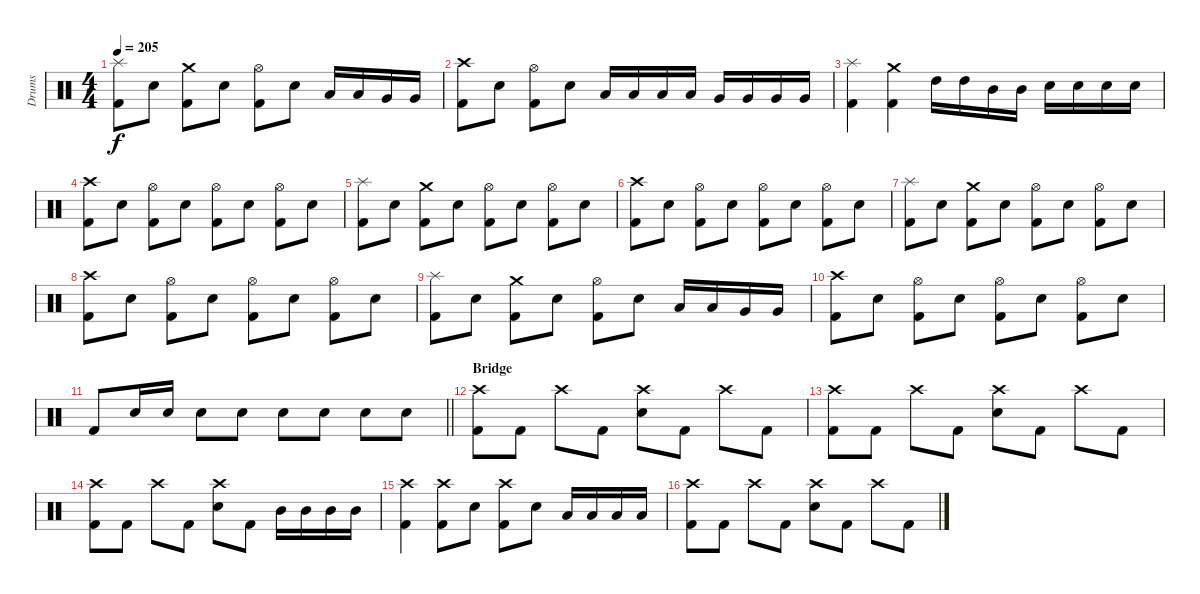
\track ("Drums" "Drums") {instrument percussion}
\staff {score}
\articulation defaults
\ts (4 4)
\tempo 205
\clef neutral
\ks c
("Splash (hit)" "Kick (hit) 2").8{dy f} "Electric Snare (hit)".8 ("Crash medium (hit)" "Kick (hit) 2").8 "Electric Snare (hit)".8 ("Hi-Hat (open)" "Kick (hit) 2").8 "Electric Snare (hit)".8 "Low Tom (hit)".16 "Low Tom (hit)".16 "Very Low Tom (hit)".16 "Very Low Tom (hit)".16 |
("Crash high (hit)" "Kick (hit) 2").8 "Electric Snare (hit)".8 ("Hi-Hat (open)" "Kick (hit) 2").8 "Electric Snare (hit)".8 "Low Tom (hit)".16 "Low Tom (hit)".16 "Low Tom (hit)".16 "Low Tom (hit)".16 "Very Low Tom (hit)".16 "Very Low Tom (hit)".16 "Very Low Tom (hit)".16 "Very Low Tom (hit)".16 |
("Splash (hit)" "Kick (hit) 2").4 ("Crash medium (hit)" "Kick (hit) 2").4 "High Tom (hit)".16 "High Tom (hit)".16 "Mid Tom (hit)".16 "Mid Tom (hit)".16 "Electric Snare (hit)".16 "Electric Snare (hit)".16 "Electric Snare (hit)".16 "Electric Snare (hit)".16 |
("Crash high (hit)" "Kick (hit) 2").8 "Electric Snare (hit)".8 ("Hi-Hat (open)" "Kick (hit) 2").8 "Electric Snare (hit)".8 ("Hi-Hat (open)" "Kick (hit) 2").8 "Electric Snare (hit)".8 ("Hi-Hat (open)" "Kick (hit) 2").8 "Electric Snare (hit)".8 |
("Splash (hit)" "Kick (hit) 2").8 "Electric Snare (hit)".8 ("Crash medium (hit)" "Kick (hit) 2").8 "Electric Snare (hit)".8 ("Hi-Hat (open)" "Kick (hit) 2").8 "Electric Snare (hit)".8 ("Hi-Hat (open)" "Kick (hit) 2").8 "Electric Snare (hit)".8 |
("Crash high (hit)" "Kick (hit) 2").8 "Electric Snare (hit)".8 ("Hi-Hat (open)" "Kick (hit) 2").8 "Electric Snare (hit)".8 ("Hi-Hat (open)" "Kick (hit) 2").8 "Electric Snare (hit)".8 ("Hi-Hat (open)" "Kick (hit) 2").8 "Electric Snare (hit)".8 |
("Splash (hit)" "Kick (hit) 2").8 "Electric Snare (hit)".8 ("Crash medium (hit)" "Kick (hit) 2").8 "Electric Snare (hit)".8 ("Hi-Hat (open)" "Kick (hit) 2").8 "Electric Snare (hit)".8 ("Hi-Hat (open)" "Kick (hit) 2").8 "Electric Snare (hit)".8 |
("Crash high (hit)" "Kick (hit) 2").8 "Electric Snare (hit)".8 ("Hi-Hat (open)" "Kick (hit) 2").8 "Electric Snare (hit)".8 ("Hi-Hat (open)" "Kick (hit) 2").8 "Electric Snare (hit)".8 ("Hi-Hat (open)" "Kick (hit) 2").8 "Electric Snare (hit)".8 |
("Splash (hit)" "Kick (hit) 2").8 "Electric Snare (hit)".8 ("Crash medium (hit)" "Kick (hit) 2").8 "Electric Snare (hit)".8 ("Hi-Hat (open)" "Kick (hit) 2").8 "Electric Snare (hit)".8 "Low Tom (hit)".16 "Low Tom (hit)".16 "Very Low Tom (hit)".16 "Very Low Tom (hit)".16 |
("Crash high (hit)" "Kick (hit) 2").8 "Electric Snare (hit)".8 ("Hi-Hat (open)" "Kick (hit) 2").8 "Electric Snare (hit)".8 ("Hi-Hat (open)" "Kick (hit) 2").8 "Electric Snare (hit)".8 ("Hi-Hat (open)" "Kick (hit) 2").8 "Electric Snare (hit)".8 |
\barLineRight lightlight "Kick (hit) 2".8 "Electric Snare (hit)".16 "Electric Snare (hit)".16 "Electric Snare (hit)".8 "Electric Snare (hit)".8 "Electric Snare (hit)".8 "Electric Snare (hit)".8 "Electric Snare (hit)".8 "Electric Snare (hit)".8
|
\section ("" "Bridge")
("Crash high (hit)" "Kick (hit) 2").8 "Kick (hit) 2".8 "Crash high (hit)".8 "Kick (hit) 2".8 ("Crash high (hit)" "Electric Snare (hit)").8 "Kick (hit) 2".8 "Crash high (hit)".8 "Kick (hit) 2".8 |
("Crash high (hit)" "Kick (hit) 2").8 "Kick (hit) 2".8 "Crash high (hit)".8 "Kick (hit) 2".8 ("Crash high (hit)" "Electric Snare (hit)").8 "Kick (hit) 2".8 "Crash high (hit)".8 "Kick (hit) 2".8 |
("Crash high (hit)" "Kick (hit) 2").8 "Kick (hit) 2".8 "Crash high (hit)".8 "Kick (hit) 2".8 ("Crash high (hit)" "Electric Snare (hit)").8 "Kick (hit) 2".8 "Mid Tom (hit)".16 "Mid Tom (hit)".16 "Mid Tom (hit)".16 "Mid Tom (hit)".16 |
("Crash high (hit)" "Kick (hit) 2").4 ("Crash high (hit)" "Kick (hit) 2").8 "Electric Snare (hit)".8 ("Crash high (hit)" "Kick (hit) 2").8 "Electric Snare (hit)".8 "Low Tom (hit)".16 "Low Tom (hit)".16 "Low Tom (hit)".16 "Low Tom (hit)".16 |
("Crash high (hit)" "Kick (hit) 2").8 "Kick (hit) 2".8 "Crash high (hit)".8 "Kick (hit) 2".8 ("Crash high (hit)" "Electric Snare (hit)").8 "Kick (hit) 2".8 "Crash high (hit)".8 "Kick (hit) 2".8
